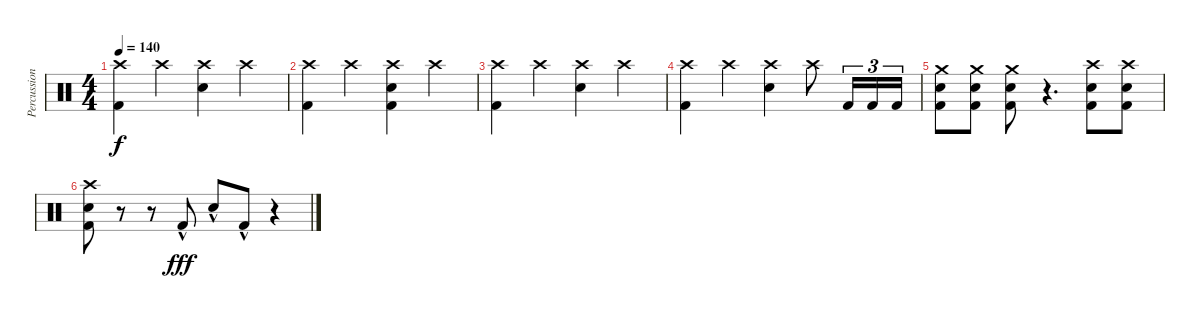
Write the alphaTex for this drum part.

\track ("Percussion" "Percussion") {instrument percussion}
\staff {score}
\articulation defaults
\ts (4 4)
\tempo 140
\clef neutral
\ks c
("Crash high (hit)" "Kick (hit) 2").4{dy f} "Crash high (hit)".4 ("Crash high (hit)" "Electric Snare (hit)").4 "Crash high (hit)".4 |
("Crash high (hit)" "Kick (hit) 2").4 "Crash high (hit)".4 ("Crash high (hit)" "Electric Snare (hit)" "Kick (hit) 2").4 "Crash high (hit)".4 |
("Crash high (hit)" "Kick (hit) 2").4 "Crash high (hit)".4 ("Crash high (hit)" "Electric Snare (hit)").4 "Crash high (hit)".4 |
("Crash high (hit)" "Kick (hit) 2").4 "Crash high (hit)".4 ("Crash high (hit)" "Electric Snare (hit)").4 "Crash high (hit)".8 "Kick (hit) 2".16{tu (3 2)} "Kick (hit) 2".16{tu (3 2)} "Kick (hit) 2".16{tu (3 2)} |
("Crash medium (hit)" "Electric Snare (hit)" "Kick (hit) 2").8 ("Crash medium (hit)" "Electric Snare (hit)" "Kick (hit) 2").8 ("Crash medium (hit)" "Electric Snare (hit)" "Kick (hit) 2").8 r.4{d} ("Crash high (hit)" "Electric Snare (hit)" "Kick (hit) 2").8 ("Crash high (hit)" "Electric Snare (hit)" "Kick (hit) 2").8 |
("Crash high (hit)" "Electric Snare (hit)" "Kick (hit) 2").8 r.8 r.8 "Kick (hit) 2"{hac}.8{dy fff} "Electric Snare (hit)"{hac}.8 "Kick (hit) 2"{hac}.8 r.4
